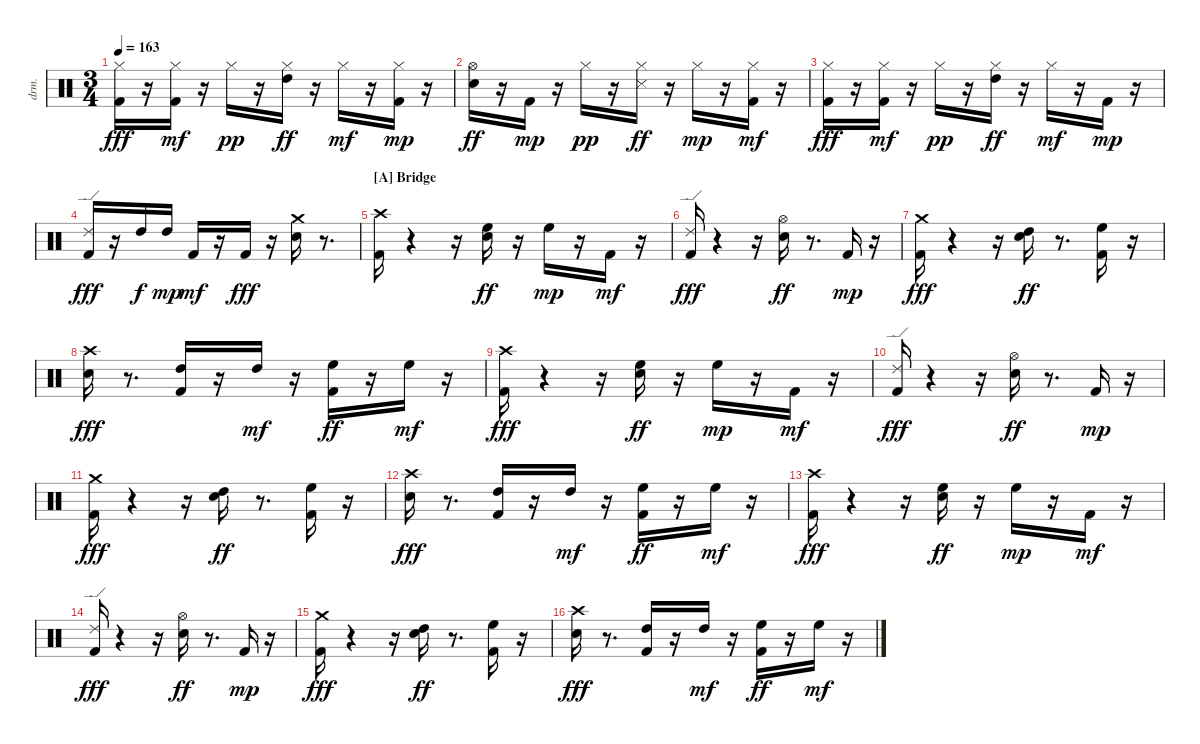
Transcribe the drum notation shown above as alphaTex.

\bracketExtendMode nobrackets
\track ("EZdrummer 3" "drm.") {instrument percussion}
\staff {score}
\articulation defaults
\ts (3 4)
\tempo 163
\clef neutral
\ks aminor
("Kick (hit) 2" "Hi-Hat (closed)"{acc #}).16{dy fff beam Down} r.16{beam Down} ("Kick (hit) 2" "Hi-Hat (closed)"{acc #}).16{dy mf beam Down} r.16{beam Down} "Hi-Hat (closed)"{acc #}.16{dy pp beam Down} r.16{beam Down} ("Hi-Hat (closed)"{acc #} "High Tom (hit)").16{dy ff beam Down} r.16{beam Down} "Hi-Hat (closed)"{acc #}.16{dy mf beam Down} r.16{beam Down} ("Kick (hit) 2" "Hi-Hat (closed)"{acc #}).16{dy mp beam Down} r.16{beam Down} |
("Snare (hit) 2" "Hi-Hat (open)"{acc #}).16{dy ff beam Down} r.16{beam Down} "Kick (hit) 2".16{dy mp beam Down} r.16{beam Down} "Hi-Hat (closed)"{acc #}.16{dy pp beam Down} r.16{beam Down} ("Snare (side stick) 3"{acc #} "Hi-Hat (closed)"{acc #}).16{dy ff beam Down} r.16{beam Down} "Hi-Hat (closed)"{acc #}.16{dy mp beam Down} r.16{beam Down} ("Kick (hit) 2" "Hi-Hat (closed)"{acc #}).16{dy mf beam Down} r.16{beam Down} |
("Kick (hit) 2" "Hi-Hat (closed)"{acc #}).16{dy fff beam Down} r.16{beam Down} ("Kick (hit) 2" "Hi-Hat (closed)"{acc #}).16{dy mf beam Down} r.16{beam Down} "Hi-Hat (closed)"{acc #}.16{dy pp beam Down} r.16{beam Down} ("Hi-Hat (closed)"{acc #} "High Tom (hit)").16{dy ff beam Down} r.16{beam Down} "Hi-Hat (closed)"{acc #}.16{dy mf beam Down} r.16{beam Down} "Kick (hit) 2".16{dy mp beam Down} r.16{beam Down} |
("Kick (hit) 2" "Ride (edge) 2").16{dy fff beam Up} r.16{beam Up} "High Tom (hit)".16{dy f beam Up} "High Tom (hit)".16{dy mp beam Up} "Kick (hit) 2".16{dy mf beam Up} r.16{beam Up} "Kick (hit) 2".16{dy fff beam Up} r.16{beam Down} ("Snare (hit) 2" "Crash medium (hit)").16{beam Down} r.8{d beam Down} |
\section ("A" "Bridge")
("Kick (hit) 2" "Crash high (hit)"{acc #}).16{beam Down} r.4{beam Down} r.16{beam Down} ("Snare (hit) 2" "High Floor Tom (hit)").16{dy ff beam Down} r.16{beam Down} "High Floor Tom (hit)".16{dy mp beam Down} r.16{beam Down} "Kick (hit) 2".16{dy mf beam Down} r.16{beam Down} |
("Kick (hit) 2" "Ride (edge) 2").16{dy fff beam Up} r.4{beam Down} r.16{beam Down} ("Snare (hit) 2" "Hi-Hat (open)"{acc #}).16{dy ff beam Down} r.8{d beam Down} "Kick (hit) 2".16{dy mp beam Up} r.16{beam Down} |
("Kick (hit) 2" "Crash medium (hit)").16{dy fff beam Down} r.4{beam Down} r.16{beam Down} ("Snare (hit) 2" "High Tom (hit)").16{dy ff beam Down} r.8{d beam Down} ("Kick (hit) 2" "High Floor Tom (hit)").16{beam Down} r.16{beam Down} |
("Snare (hit) 2" "Crash high (hit)"{acc #}).16{dy fff beam Down} r.8{d beam Down} ("Kick (hit) 2" "High Tom (hit)").16{beam Up} r.16{beam Up} "High Tom (hit)".16{dy mf beam Up} r.16{beam Down} ("Kick (hit) 2" "High Floor Tom (hit)").16{dy ff beam Down} r.16{beam Down} "High Floor Tom (hit)".16{dy mf beam Down} r.16{beam Down} |
("Kick (hit) 2" "Crash high (hit)"{acc #}).16{dy fff beam Down} r.4{beam Down} r.16{beam Down} ("Snare (hit) 2" "High Floor Tom (hit)").16{dy ff beam Down} r.16{beam Down} "High Floor Tom (hit)".16{dy mp beam Down} r.16{beam Down} "Kick (hit) 2".16{dy mf beam Down} r.16{beam Down} |
("Kick (hit) 2" "Ride (edge) 2").16{dy fff beam Up} r.4{beam Down} r.16{beam Down} ("Snare (hit) 2" "Hi-Hat (open)"{acc #}).16{dy ff beam Down} r.8{d beam Down} "Kick (hit) 2".16{dy mp beam Up} r.16{beam Down} |
("Kick (hit) 2" "Crash medium (hit)").16{dy fff beam Down} r.4{beam Down} r.16{beam Down} ("Snare (hit) 2" "High Tom (hit)").16{dy ff beam Down} r.8{d beam Down} ("Kick (hit) 2" "High Floor Tom (hit)").16{beam Down} r.16{beam Down} |
("Snare (hit) 2" "Crash high (hit)"{acc #}).16{dy fff beam Down} r.8{d beam Down} ("Kick (hit) 2" "High Tom (hit)").16{beam Up} r.16{beam Up} "High Tom (hit)".16{dy mf beam Up} r.16{beam Down} ("Kick (hit) 2" "High Floor Tom (hit)").16{dy ff beam Down} r.16{beam Down} "High Floor Tom (hit)".16{dy mf beam Down} r.16{beam Down} |
("Kick (hit) 2" "Crash high (hit)"{acc #}).16{dy fff beam Down} r.4{beam Down} r.16{beam Down} ("Snare (hit) 2" "High Floor Tom (hit)").16{dy ff beam Down} r.16{beam Down} "High Floor Tom (hit)".16{dy mp beam Down} r.16{beam Down} "Kick (hit) 2".16{dy mf beam Down} r.16{beam Down} |
("Kick (hit) 2" "Ride (edge) 2").16{dy fff beam Up} r.4{beam Down} r.16{beam Down} ("Snare (hit) 2" "Hi-Hat (open)"{acc #}).16{dy ff beam Down} r.8{d beam Down} "Kick (hit) 2".16{dy mp beam Up} r.16{beam Down} |
("Kick (hit) 2" "Crash medium (hit)").16{dy fff beam Down} r.4{beam Down} r.16{beam Down} ("Snare (hit) 2" "High Tom (hit)").16{dy ff beam Down} r.8{d beam Down} ("Kick (hit) 2" "High Floor Tom (hit)").16{beam Down} r.16{beam Down} |
("Snare (hit) 2" "Crash high (hit)"{acc #}).16{dy fff beam Down} r.8{d beam Down} ("Kick (hit) 2" "High Tom (hit)").16{beam Up} r.16{beam Up} "High Tom (hit)".16{dy mf beam Up} r.16{beam Down} ("Kick (hit) 2" "High Floor Tom (hit)").16{dy ff beam Down} r.16{beam Down} "High Floor Tom (hit)".16{dy mf beam Down} r.16{beam Down}
